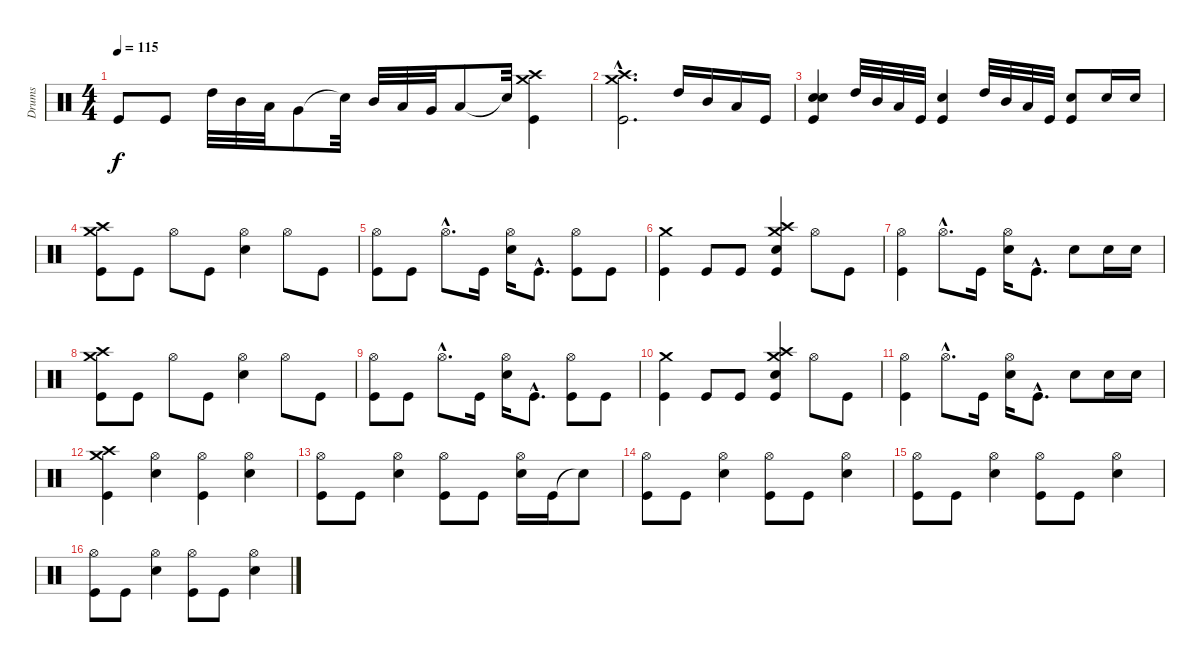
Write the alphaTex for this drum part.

\track ("Drums" "Drums") {instrument percussion}
\staff {score}
\articulation defaults
\ts (4 4)
\tempo 115
\clef neutral
\ks c "Kick (hit)".8{dy f} "Kick (hit)".8 "High Tom (hit)".32 "Mid Tom (hit)".32 "Low Tom (hit)".32 "Very Low Tom (hit)".8 "Snare (hit)"{t}.32 "Mid Tom (hit)".32 "Low Tom (hit)".32 "Very Low Tom (hit)".32 "Low Floor Tom (hit)".8 "Snare (hit)"{t}.32
("Kick (hit)" "Crash high (hit)" "Crash medium (hit)").4 |
("Kick (hit)"{hac} "Crash medium (hit)"{hac} "Crash high (hit)"{hac}).2{d} "High Tom (hit)".16 "Mid Tom (hit)".16 "Low Tom (hit)".16 "Kick (hit)".16 |
("Kick (hit)" "Electric Snare (hit)" "Electric Snare (hit)").4 "High Tom (hit)".32 "Mid Tom (hit)".32 "Low Tom (hit)".32 "Kick (hit)".32 ("Kick (hit)" "Electric Snare (hit)").4 "High Tom (hit)".32 "Mid Tom (hit)".32 "Low Tom (hit)".32 "Kick (hit)".32 ("Kick (hit)" "Electric Snare (hit)").8 "Electric Snare (hit)".16 "Electric Snare (hit)".16 |
("Kick (hit)" "Crash high (hit)" "Crash medium (hit)").8 "Kick (hit)".8 "Hi-Hat (open)".8 "Kick (hit)".8 ("Electric Snare (hit)" "Hi-Hat (open)").4 "Hi-Hat (open)".8 "Kick (hit)".8 |
("Kick (hit)" "Hi-Hat (open)").8 "Kick (hit)".8 "Hi-Hat (open)"{hac}.8{d} "Kick (hit)".16 ("Electric Snare (hit)" "Hi-Hat (open)").16 "Kick (hit)"{hac}.8{d} ("Kick (hit)" "Hi-Hat (open)").8 "Kick (hit)".8 |
("Kick (hit)" "Crash medium (hit)").4 "Kick (hit)".8 "Kick (hit)".8 ("Electric Snare (hit)" "Kick (hit)" "Crash medium (hit)" "Crash high (hit)").4 "Hi-Hat (open)".8 "Kick (hit)".8 |
("Kick (hit)" "Hi-Hat (open)").4 "Hi-Hat (open)"{hac}.8{d} "Kick (hit)".16 ("Electric Snare (hit)" "Hi-Hat (open)").16 "Kick (hit)"{hac}.8{d} "Electric Snare (hit)".8 "Electric Snare (hit)".16 "Electric Snare (hit)".16 |
("Kick (hit)" "Crash high (hit)" "Crash medium (hit)").8 "Kick (hit)".8 "Hi-Hat (open)".8 "Kick (hit)".8 ("Electric Snare (hit)" "Hi-Hat (open)").4 "Hi-Hat (open)".8 "Kick (hit)".8 |
("Kick (hit)" "Hi-Hat (open)").8 "Kick (hit)".8 "Hi-Hat (open)"{hac}.8{d} "Kick (hit)".16 ("Electric Snare (hit)" "Hi-Hat (open)").16 "Kick (hit)"{hac}.8{d} ("Kick (hit)" "Hi-Hat (open)").8 "Kick (hit)".8 |
("Kick (hit)" "Crash medium (hit)").4 "Kick (hit)".8 "Kick (hit)".8 ("Electric Snare (hit)" "Kick (hit)" "Crash medium (hit)" "Crash high (hit)").4 "Hi-Hat (open)".8 "Kick (hit)".8 |
("Kick (hit)" "Hi-Hat (open)").4 "Hi-Hat (open)"{hac}.8{d} "Kick (hit)".16 ("Electric Snare (hit)" "Hi-Hat (open)").16 "Kick (hit)"{hac}.8{d} "Electric Snare (hit)".8 "Electric Snare (hit)".16 "Electric Snare (hit)".16 |
("Kick (hit)" "Crash high (hit)" "Crash medium (hit)").4 ("Electric Snare (hit)" "Hi-Hat (open)").4 ("Kick (hit)" "Hi-Hat (open)").4 ("Electric Snare (hit)" "Hi-Hat (open)").4 |
("Kick (hit)" "Hi-Hat (open)").8 "Kick (hit)".8 ("Electric Snare (hit)" "Hi-Hat (open)").4 ("Kick (hit)" "Hi-Hat (open)").8 "Kick (hit)".8 ("Electric Snare (hit)" "Hi-Hat (open)").16 "Kick (hit)".16 "Snare (hit)"{t}.8 |
("Kick (hit)" "Hi-Hat (open)").8 "Kick (hit)".8 ("Electric Snare (hit)" "Hi-Hat (open)").4 ("Kick (hit)" "Hi-Hat (open)").8 "Kick (hit)".8 ("Electric Snare (hit)" "Hi-Hat (open)").4 |
("Kick (hit)" "Hi-Hat (open)").8 "Kick (hit)".8 ("Electric Snare (hit)" "Hi-Hat (open)").4 ("Kick (hit)" "Hi-Hat (open)").8 "Kick (hit)".8 ("Electric Snare (hit)" "Hi-Hat (open)").4 |
("Kick (hit)" "Hi-Hat (open)").8 "Kick (hit)".8 ("Electric Snare (hit)" "Hi-Hat (open)").4 ("Kick (hit)" "Hi-Hat (open)").8 "Kick (hit)".8 ("Electric Snare (hit)" "Hi-Hat (open)").4
